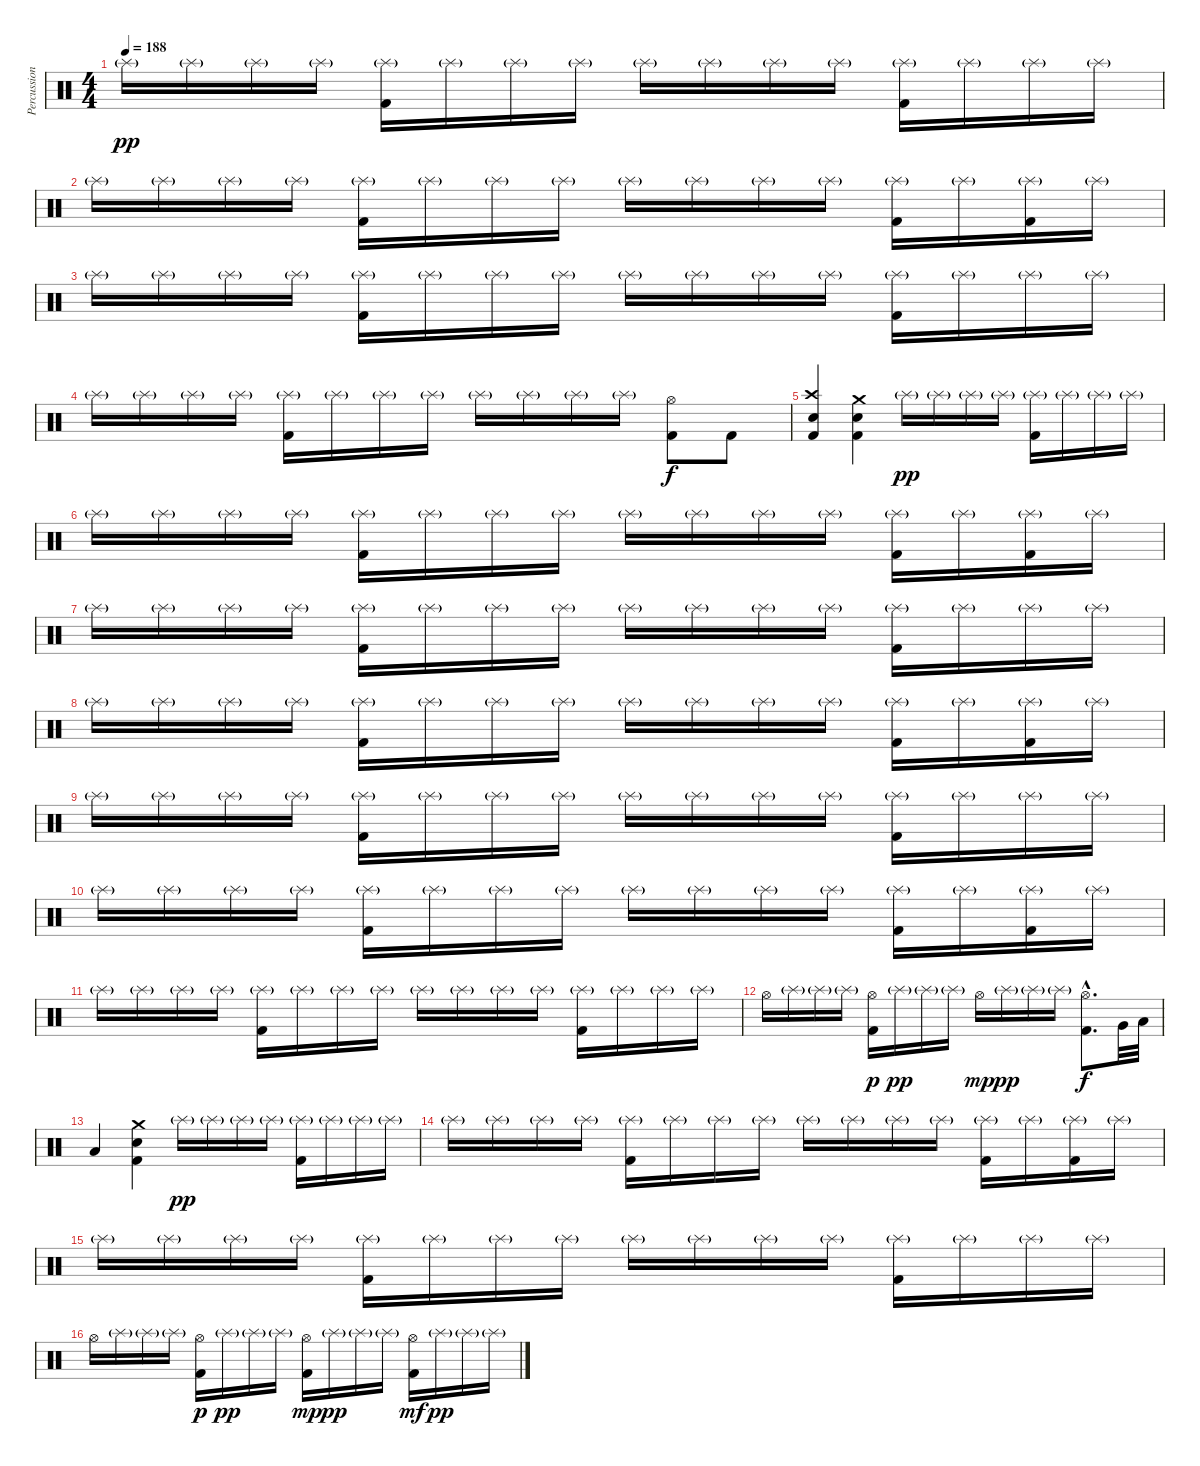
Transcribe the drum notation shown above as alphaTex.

\track ("Percussion" "Percussion") {instrument percussion}
\staff {score}
\articulation defaults
\ts (4 4)
\tempo 188
\clef neutral
\ks c "Splash (hit)"{g}.16{dy pp} "Splash (hit)"{g}.16 "Splash (hit)"{g}.16 "Splash (hit)"{g}.16
("Splash (hit)"{g} "Kick (hit) 2").16 "Splash (hit)"{g}.16 "Splash (hit)"{g}.16 "Splash (hit)"{g}.16 "Splash (hit)"{g}.16 "Splash (hit)"{g}.16 "Splash (hit)"{g}.16 "Splash (hit)"{g}.16 ("Splash (hit)"{g} "Kick (hit) 2").16 "Splash (hit)"{g}.16 "Splash (hit)"{g}.16 "Splash (hit)"{g}.16 |
"Splash (hit)"{g}.16 "Splash (hit)"{g}.16 "Splash (hit)"{g}.16 "Splash (hit)"{g}.16 ("Splash (hit)"{g} "Kick (hit) 2").16 "Splash (hit)"{g}.16 "Splash (hit)"{g}.16 "Splash (hit)"{g}.16 "Splash (hit)"{g}.16 "Splash (hit)"{g}.16 "Splash (hit)"{g}.16 "Splash (hit)"{g}.16 ("Splash (hit)"{g} "Kick (hit) 2").16 "Splash (hit)"{g}.16 ("Splash (hit)"{g} "Kick (hit) 2").16 "Splash (hit)"{g}.16 |
"Splash (hit)"{g}.16 "Splash (hit)"{g}.16 "Splash (hit)"{g}.16 "Splash (hit)"{g}.16 ("Splash (hit)"{g} "Kick (hit) 2").16 "Splash (hit)"{g}.16 "Splash (hit)"{g}.16 "Splash (hit)"{g}.16 "Splash (hit)"{g}.16 "Splash (hit)"{g}.16 "Splash (hit)"{g}.16 "Splash (hit)"{g}.16 ("Splash (hit)"{g} "Kick (hit) 2").16 "Splash (hit)"{g}.16 "Splash (hit)"{g}.16 "Splash (hit)"{g}.16 |
"Splash (hit)"{g}.16 "Splash (hit)"{g}.16 "Splash (hit)"{g}.16 "Splash (hit)"{g}.16 ("Splash (hit)"{g} "Kick (hit) 2").16 "Splash (hit)"{g}.16 "Splash (hit)"{g}.16 "Splash (hit)"{g}.16 "Splash (hit)"{g}.16 "Splash (hit)"{g}.16 "Splash (hit)"{g}.16 "Splash (hit)"{g}.16 ("Hi-Hat (open)" "Kick (hit) 2").8{dy f} "Kick (hit) 2".8 |
("Crash high (hit)" "Electric Snare (hit)" "Kick (hit) 2").4 ("Crash medium (hit)" "Electric Snare (hit)" "Kick (hit) 2").4 "Splash (hit)"{g}.16{dy pp} "Splash (hit)"{g}.16 "Splash (hit)"{g}.16 "Splash (hit)"{g}.16 ("Splash (hit)"{g} "Kick (hit) 2").16 "Splash (hit)"{g}.16 "Splash (hit)"{g}.16 "Splash (hit)"{g}.16 |
"Splash (hit)"{g}.16 "Splash (hit)"{g}.16 "Splash (hit)"{g}.16 "Splash (hit)"{g}.16 ("Splash (hit)"{g} "Kick (hit) 2").16 "Splash (hit)"{g}.16 "Splash (hit)"{g}.16 "Splash (hit)"{g}.16 "Splash (hit)"{g}.16 "Splash (hit)"{g}.16 "Splash (hit)"{g}.16 "Splash (hit)"{g}.16 ("Splash (hit)"{g} "Kick (hit) 2").16 "Splash (hit)"{g}.16 ("Splash (hit)"{g} "Kick (hit) 2").16 "Splash (hit)"{g}.16 |
"Splash (hit)"{g}.16 "Splash (hit)"{g}.16 "Splash (hit)"{g}.16 "Splash (hit)"{g}.16 ("Splash (hit)"{g} "Kick (hit) 2").16 "Splash (hit)"{g}.16 "Splash (hit)"{g}.16 "Splash (hit)"{g}.16 "Splash (hit)"{g}.16 "Splash (hit)"{g}.16 "Splash (hit)"{g}.16 "Splash (hit)"{g}.16 ("Splash (hit)"{g} "Kick (hit) 2").16 "Splash (hit)"{g}.16 "Splash (hit)"{g}.16 "Splash (hit)"{g}.16 |
"Splash (hit)"{g}.16 "Splash (hit)"{g}.16 "Splash (hit)"{g}.16 "Splash (hit)"{g}.16 ("Splash (hit)"{g} "Kick (hit) 2").16 "Splash (hit)"{g}.16 "Splash (hit)"{g}.16 "Splash (hit)"{g}.16 "Splash (hit)"{g}.16 "Splash (hit)"{g}.16 "Splash (hit)"{g}.16 "Splash (hit)"{g}.16 ("Splash (hit)"{g} "Kick (hit) 2").16 "Splash (hit)"{g}.16 ("Splash (hit)"{g} "Kick (hit) 2").16 "Splash (hit)"{g}.16 |
"Splash (hit)"{g}.16 "Splash (hit)"{g}.16 "Splash (hit)"{g}.16 "Splash (hit)"{g}.16 ("Splash (hit)"{g} "Kick (hit) 2").16 "Splash (hit)"{g}.16 "Splash (hit)"{g}.16 "Splash (hit)"{g}.16 "Splash (hit)"{g}.16 "Splash (hit)"{g}.16 "Splash (hit)"{g}.16 "Splash (hit)"{g}.16 ("Splash (hit)"{g} "Kick (hit) 2").16 "Splash (hit)"{g}.16 "Splash (hit)"{g}.16 "Splash (hit)"{g}.16 |
"Splash (hit)"{g}.16 "Splash (hit)"{g}.16 "Splash (hit)"{g}.16 "Splash (hit)"{g}.16 ("Splash (hit)"{g} "Kick (hit) 2").16 "Splash (hit)"{g}.16 "Splash (hit)"{g}.16 "Splash (hit)"{g}.16 "Splash (hit)"{g}.16 "Splash (hit)"{g}.16 "Splash (hit)"{g}.16 "Splash (hit)"{g}.16 ("Splash (hit)"{g} "Kick (hit) 2").16 "Splash (hit)"{g}.16 ("Splash (hit)"{g} "Kick (hit) 2").16 "Splash (hit)"{g}.16 |
"Splash (hit)"{g}.16 "Splash (hit)"{g}.16 "Splash (hit)"{g}.16 "Splash (hit)"{g}.16 ("Splash (hit)"{g} "Kick (hit) 2").16 "Splash (hit)"{g}.16 "Splash (hit)"{g}.16 "Splash (hit)"{g}.16 "Splash (hit)"{g}.16 "Splash (hit)"{g}.16 "Splash (hit)"{g}.16 "Splash (hit)"{g}.16 ("Splash (hit)"{g} "Kick (hit) 2").16 "Splash (hit)"{g}.16 "Splash (hit)"{g}.16 "Splash (hit)"{g}.16 |
"Hi-Hat (open)".16 "Splash (hit)"{g}.16 "Splash (hit)"{g}.16 "Splash (hit)"{g}.16 ("Hi-Hat (open)" "Kick (hit) 2").16{dy p} "Splash (hit)"{g}.16{dy pp} "Splash (hit)"{g}.16 "Splash (hit)"{g}.16 "Hi-Hat (open)".16{dy mp} "Splash (hit)"{g}.16{dy pp} "Splash (hit)"{g}.16 "Splash (hit)"{g}.16 ("Hi-Hat (open)"{hac} "Kick (hit) 2"{hac}).8{d dy f} "Very Low Tom (hit)".32 "Low Floor Tom (hit)".32 |
"Low Floor Tom (hit)".4 ("Crash medium (hit)" "Electric Snare (hit)" "Kick (hit) 2").4 "Splash (hit)"{g}.16{dy pp} "Splash (hit)"{g}.16 "Splash (hit)"{g}.16 "Splash (hit)"{g}.16 ("Splash (hit)"{g} "Kick (hit) 2").16 "Splash (hit)"{g}.16 "Splash (hit)"{g}.16 "Splash (hit)"{g}.16 |
"Splash (hit)"{g}.16 "Splash (hit)"{g}.16 "Splash (hit)"{g}.16 "Splash (hit)"{g}.16 ("Splash (hit)"{g} "Kick (hit) 2").16 "Splash (hit)"{g}.16 "Splash (hit)"{g}.16 "Splash (hit)"{g}.16 "Splash (hit)"{g}.16 "Splash (hit)"{g}.16 "Splash (hit)"{g}.16 "Splash (hit)"{g}.16 ("Splash (hit)"{g} "Kick (hit) 2").16 "Splash (hit)"{g}.16 ("Splash (hit)"{g} "Kick (hit) 2").16 "Splash (hit)"{g}.16 |
"Splash (hit)"{g}.16 "Splash (hit)"{g}.16 "Splash (hit)"{g}.16 "Splash (hit)"{g}.16 ("Splash (hit)"{g} "Kick (hit) 2").16 "Splash (hit)"{g}.16 "Splash (hit)"{g}.16 "Splash (hit)"{g}.16 "Splash (hit)"{g}.16 "Splash (hit)"{g}.16 "Splash (hit)"{g}.16 "Splash (hit)"{g}.16 ("Splash (hit)"{g} "Kick (hit) 2").16 "Splash (hit)"{g}.16 "Splash (hit)"{g}.16 "Splash (hit)"{g}.16 |
"Hi-Hat (open)".16 "Splash (hit)"{g}.16 "Splash (hit)"{g}.16 "Splash (hit)"{g}.16 ("Hi-Hat (open)" "Kick (hit) 2").16{dy p} "Splash (hit)"{g}.16{dy pp} "Splash (hit)"{g}.16 "Splash (hit)"{g}.16 ("Hi-Hat (open)" "Kick (hit) 2").16{dy mp} "Splash (hit)"{g}.16{dy pp} "Splash (hit)"{g}.16 "Splash (hit)"{g}.16 ("Hi-Hat (open)" "Kick (hit) 2").16{dy mf} "Splash (hit)"{g}.16{dy pp} "Splash (hit)"{g}.16 "Splash (hit)"{g}.16
